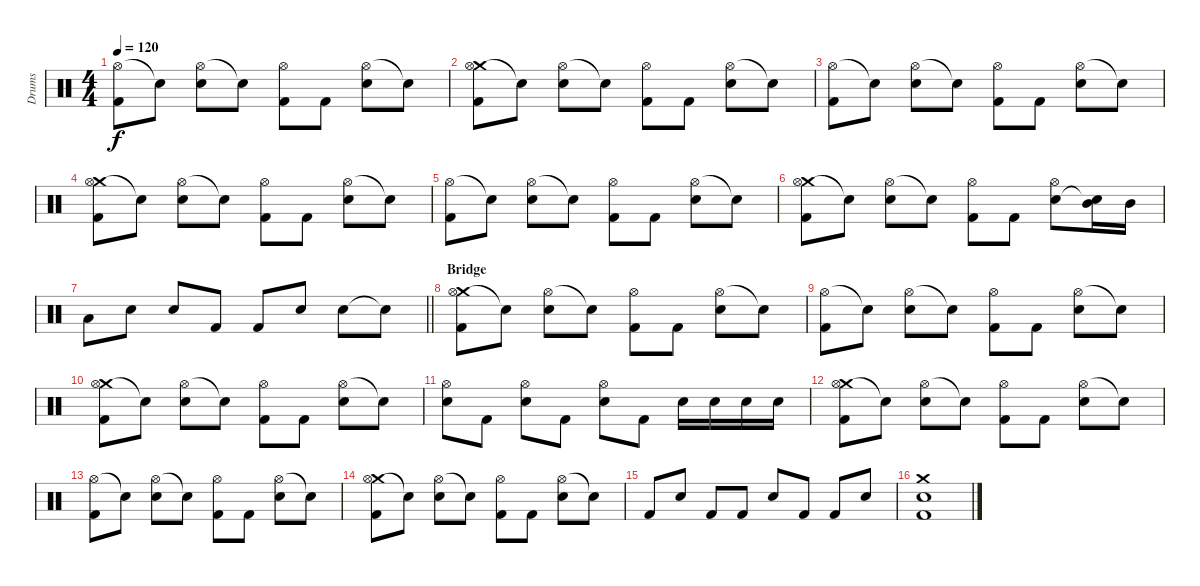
\track ("Drums" "Drums") {instrument percussion}
\staff {score}
\articulation defaults
\ts (4 4)
\tempo 120
\clef neutral
\ks c
("Hi-Hat (open)" "Kick (hit) 2").8{dy f} "Snare (hit)"{t}.8 ("Hi-Hat (open)" "Electric Snare (hit)").8 "Snare (hit)"{t}.8 ("Hi-Hat (open)" "Kick (hit) 2").8 "Kick (hit) 2".8 ("Hi-Hat (open)" "Electric Snare (hit)").8 "Snare (hit)"{t}.8 |
("Crash medium (hit)" "Hi-Hat (open)" "Kick (hit) 2").8 "Snare (hit)"{t}.8 ("Hi-Hat (open)" "Electric Snare (hit)").8 "Snare (hit)"{t}.8 ("Hi-Hat (open)" "Kick (hit) 2").8 "Kick (hit) 2".8 ("Hi-Hat (open)" "Electric Snare (hit)").8 "Snare (hit)"{t}.8 |
("Hi-Hat (open)" "Kick (hit) 2").8 "Snare (hit)"{t}.8 ("Hi-Hat (open)" "Electric Snare (hit)").8 "Snare (hit)"{t}.8 ("Hi-Hat (open)" "Kick (hit) 2").8 "Kick (hit) 2".8 ("Hi-Hat (open)" "Electric Snare (hit)").8 "Snare (hit)"{t}.8 |
("Crash medium (hit)" "Hi-Hat (open)" "Kick (hit) 2").8 "Snare (hit)"{t}.8 ("Hi-Hat (open)" "Electric Snare (hit)").8 "Snare (hit)"{t}.8 ("Hi-Hat (open)" "Kick (hit) 2").8 "Kick (hit) 2".8 ("Hi-Hat (open)" "Electric Snare (hit)").8 "Snare (hit)"{t}.8 |
("Hi-Hat (open)" "Kick (hit) 2").8 "Snare (hit)"{t}.8 ("Hi-Hat (open)" "Electric Snare (hit)").8 "Snare (hit)"{t}.8 ("Hi-Hat (open)" "Kick (hit) 2").8 "Kick (hit) 2".8 ("Hi-Hat (open)" "Electric Snare (hit)").8 "Snare (hit)"{t}.8 |
("Crash medium (hit)" "Hi-Hat (open)" "Kick (hit) 2").8 "Snare (hit)"{t}.8 ("Hi-Hat (open)" "Electric Snare (hit)").8 "Snare (hit)"{t}.8 ("Hi-Hat (open)" "Kick (hit) 2").8 "Kick (hit) 2".8 ("Hi-Hat (open)" "Electric Snare (hit)").8 ("Mid Tom (hit)" "Snare (hit)"{t}).16 "Mid Tom (hit)".16 |
\barLineRight lightlight "Low Tom (hit)".8 "Electric Snare (hit)".8 "Electric Snare (hit)".8 "Kick (hit) 2".8 "Kick (hit) 2".8 "Electric Snare (hit)".8 "Electric Snare (hit)".8 "Snare (hit)"{t}.8
|
\section ("" "Bridge")
("Crash medium (hit)" "Hi-Hat (open)" "Kick (hit) 2").8 "Snare (hit)"{t}.8 ("Hi-Hat (open)" "Electric Snare (hit)").8 "Snare (hit)"{t}.8 ("Hi-Hat (open)" "Kick (hit) 2").8 "Kick (hit) 2".8 ("Hi-Hat (open)" "Electric Snare (hit)").8 "Snare (hit)"{t}.8 |
("Hi-Hat (open)" "Kick (hit) 2").8 "Snare (hit)"{t}.8 ("Hi-Hat (open)" "Electric Snare (hit)").8 "Snare (hit)"{t}.8 ("Hi-Hat (open)" "Kick (hit) 2").8 "Kick (hit) 2".8 ("Hi-Hat (open)" "Electric Snare (hit)").8 "Snare (hit)"{t}.8 |
("Crash medium (hit)" "Hi-Hat (open)" "Kick (hit) 2").8 "Snare (hit)"{t}.8 ("Hi-Hat (open)" "Electric Snare (hit)").8 "Snare (hit)"{t}.8 ("Hi-Hat (open)" "Kick (hit) 2").8 "Kick (hit) 2".8 ("Hi-Hat (open)" "Electric Snare (hit)").8 "Snare (hit)"{t}.8 |
("Hi-Hat (open)" "Electric Snare (hit)").8 "Kick (hit) 2".8 ("Hi-Hat (open)" "Electric Snare (hit)").8 "Kick (hit) 2".8 ("Hi-Hat (open)" "Electric Snare (hit)").8 "Kick (hit) 2".8 "Electric Snare (hit)".16 "Electric Snare (hit)".16 "Electric Snare (hit)".16 "Electric Snare (hit)".16 |
("Crash medium (hit)" "Hi-Hat (open)" "Kick (hit) 2").8 "Snare (hit)"{t}.8 ("Hi-Hat (open)" "Electric Snare (hit)").8 "Snare (hit)"{t}.8 ("Hi-Hat (open)" "Kick (hit) 2").8 "Kick (hit) 2".8 ("Hi-Hat (open)" "Electric Snare (hit)").8 "Snare (hit)"{t}.8 |
("Hi-Hat (open)" "Kick (hit) 2").8 "Snare (hit)"{t}.8 ("Hi-Hat (open)" "Electric Snare (hit)").8 "Snare (hit)"{t}.8 ("Hi-Hat (open)" "Kick (hit) 2").8 "Kick (hit) 2".8 ("Hi-Hat (open)" "Electric Snare (hit)").8 "Snare (hit)"{t}.8 |
("Crash medium (hit)" "Hi-Hat (open)" "Kick (hit) 2").8 "Snare (hit)"{t}.8 ("Hi-Hat (open)" "Electric Snare (hit)").8 "Snare (hit)"{t}.8 ("Hi-Hat (open)" "Kick (hit) 2").8 "Kick (hit) 2".8 ("Hi-Hat (open)" "Electric Snare (hit)").8 "Snare (hit)"{t}.8 |
"Kick (hit) 2".8 "Electric Snare (hit)".8 "Kick (hit) 2".8 "Kick (hit) 2".8 "Electric Snare (hit)".8 "Kick (hit) 2".8 "Kick (hit) 2".8 "Electric Snare (hit)".8 |
("Crash medium (hit)" "Electric Snare (hit)" "Kick (hit) 2").1
